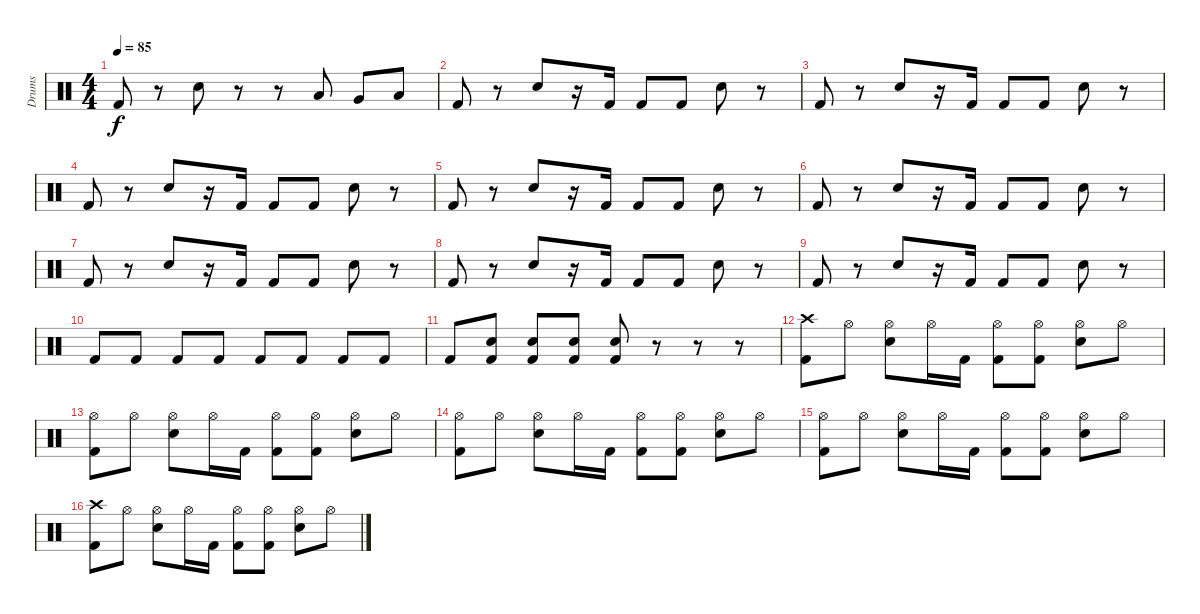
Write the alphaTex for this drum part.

\track ("Drums" "Drums") {instrument percussion}
\staff {score}
\articulation defaults
\ts (4 4)
\tempo 85
\clef neutral
\ks c "Kick (hit) 2".8{dy f}
r.8 "Snare (hit) 2".8 r.8 r.8 "Low Tom (hit)".8 "Very Low Tom (hit)".8 "Low Floor Tom (hit)".8 |
"Kick (hit) 2".8 r.8 "Snare (hit) 2".8 r.16 "Kick (hit) 2".16 "Kick (hit) 2".8 "Kick (hit) 2".8 "Snare (hit) 2".8 r.8 |
"Kick (hit) 2".8 r.8 "Snare (hit) 2".8 r.16 "Kick (hit) 2".16 "Kick (hit) 2".8 "Kick (hit) 2".8 "Snare (hit) 2".8 r.8 |
"Kick (hit) 2".8 r.8 "Snare (hit) 2".8 r.16 "Kick (hit) 2".16 "Kick (hit) 2".8 "Kick (hit) 2".8 "Snare (hit) 2".8 r.8 |
"Kick (hit) 2".8 r.8 "Snare (hit) 2".8 r.16 "Kick (hit) 2".16 "Kick (hit) 2".8 "Kick (hit) 2".8 "Snare (hit) 2".8 r.8 |
"Kick (hit) 2".8 r.8 "Snare (hit) 2".8 r.16 "Kick (hit) 2".16 "Kick (hit) 2".8 "Kick (hit) 2".8 "Snare (hit) 2".8 r.8 |
"Kick (hit) 2".8 r.8 "Snare (hit) 2".8 r.16 "Kick (hit) 2".16 "Kick (hit) 2".8 "Kick (hit) 2".8 "Snare (hit) 2".8 r.8 |
"Kick (hit) 2".8 r.8 "Snare (hit) 2".8 r.16 "Kick (hit) 2".16 "Kick (hit) 2".8 "Kick (hit) 2".8 "Snare (hit) 2".8 r.8 |
"Kick (hit) 2".8 r.8 "Snare (hit) 2".8 r.16 "Kick (hit) 2".16 "Kick (hit) 2".8 "Kick (hit) 2".8 "Snare (hit) 2".8 r.8 |
"Kick (hit) 2".8 "Kick (hit) 2".8 "Kick (hit) 2".8 "Kick (hit) 2".8 "Kick (hit) 2".8 "Kick (hit) 2".8 "Kick (hit) 2".8 "Kick (hit) 2".8 |
"Kick (hit) 2".8 ("Snare (hit) 2" "Kick (hit) 2").8 ("Snare (hit) 2" "Kick (hit) 2").8 ("Snare (hit) 2" "Kick (hit) 2").8 ("Snare (hit) 2" "Kick (hit) 2").8 r.8 r.8 r.8 |
("Crash high (hit)" "Kick (hit) 2").8 "Hi-Hat (open)".8 ("Hi-Hat (open)" "Snare (hit) 2").8 "Hi-Hat (open)".16 "Kick (hit) 2".16 ("Hi-Hat (open)" "Kick (hit) 2").8 ("Hi-Hat (open)" "Kick (hit) 2").8 ("Hi-Hat (open)" "Snare (hit) 2").8 "Hi-Hat (open)".8 |
("Hi-Hat (open)" "Kick (hit) 2").8 "Hi-Hat (open)".8 ("Hi-Hat (open)" "Snare (hit) 2").8 "Hi-Hat (open)".16 "Kick (hit) 2".16 ("Hi-Hat (open)" "Kick (hit) 2").8 ("Hi-Hat (open)" "Kick (hit) 2").8 ("Hi-Hat (open)" "Snare (hit) 2").8 "Hi-Hat (open)".8 |
("Hi-Hat (open)" "Kick (hit) 2").8 "Hi-Hat (open)".8 ("Hi-Hat (open)" "Snare (hit) 2").8 "Hi-Hat (open)".16 "Kick (hit) 2".16 ("Hi-Hat (open)" "Kick (hit) 2").8 ("Hi-Hat (open)" "Kick (hit) 2").8 ("Hi-Hat (open)" "Snare (hit) 2").8 "Hi-Hat (open)".8 |
("Hi-Hat (open)" "Kick (hit) 2").8 "Hi-Hat (open)".8 ("Hi-Hat (open)" "Snare (hit) 2").8 "Hi-Hat (open)".16 "Kick (hit) 2".16 ("Hi-Hat (open)" "Kick (hit) 2").8 ("Hi-Hat (open)" "Kick (hit) 2").8 ("Hi-Hat (open)" "Snare (hit) 2").8 "Hi-Hat (open)".8 |
("Crash high (hit)" "Kick (hit) 2").8 "Hi-Hat (open)".8 ("Hi-Hat (open)" "Snare (hit) 2").8 "Hi-Hat (open)".16 "Kick (hit) 2".16 ("Hi-Hat (open)" "Kick (hit) 2").8 ("Hi-Hat (open)" "Kick (hit) 2").8 ("Hi-Hat (open)" "Snare (hit) 2").8 "Hi-Hat (open)".8
